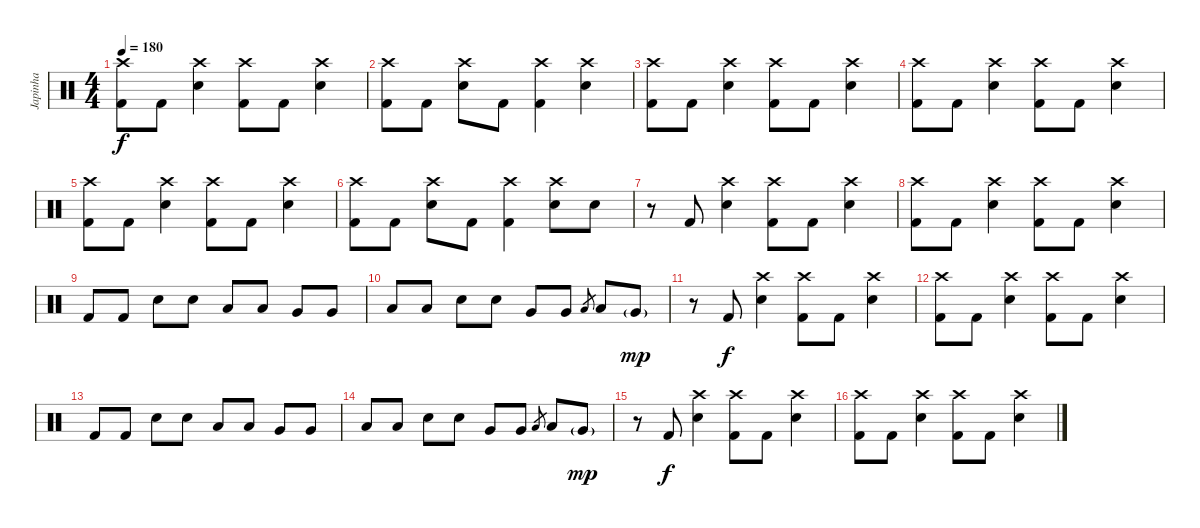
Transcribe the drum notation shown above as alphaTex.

\track ("Japinha" "Japinha") {instrument percussion}
\staff {score}
\articulation defaults
\ts (4 4)
\tempo 180
\clef neutral
\ks c
("Kick (hit) 2" "Crash high (hit)").8{dy f} "Kick (hit) 2".8 ("Snare (hit) 2" "Crash high (hit)").4 ("Kick (hit) 2" "Crash high (hit)").8 "Kick (hit) 2".8 ("Snare (hit) 2" "Crash high (hit)").4 |
("Kick (hit) 2" "Crash high (hit)").8 "Kick (hit) 2".8 ("Snare (hit) 2" "Crash high (hit)").8 "Kick (hit) 2".8 ("Kick (hit) 2" "Crash high (hit)").4 ("Snare (hit) 2" "Crash high (hit)").4 |
("Kick (hit) 2" "Crash high (hit)").8 "Kick (hit) 2".8 ("Snare (hit) 2" "Crash high (hit)").4 ("Kick (hit) 2" "Crash high (hit)").8 "Kick (hit) 2".8 ("Snare (hit) 2" "Crash high (hit)").4 |
("Kick (hit) 2" "Crash high (hit)").8 "Kick (hit) 2".8 ("Snare (hit) 2" "Crash high (hit)").4 ("Kick (hit) 2" "Crash high (hit)").8 "Kick (hit) 2".8 ("Snare (hit) 2" "Crash high (hit)").4 |
("Kick (hit) 2" "Crash high (hit)").8 "Kick (hit) 2".8 ("Snare (hit) 2" "Crash high (hit)").4 ("Kick (hit) 2" "Crash high (hit)").8 "Kick (hit) 2".8 ("Snare (hit) 2" "Crash high (hit)").4 |
("Kick (hit) 2" "Crash high (hit)").8 "Kick (hit) 2".8 ("Snare (hit) 2" "Crash high (hit)").8 "Kick (hit) 2".8 ("Kick (hit) 2" "Crash high (hit)").4 ("Snare (hit) 2" "Crash high (hit)").8 "Snare (hit) 2".8 |
r.8 "Kick (hit) 2".8 ("Snare (hit) 2" "Crash high (hit)").4 ("Kick (hit) 2" "Crash high (hit)").8 "Kick (hit) 2".8 ("Snare (hit) 2" "Crash high (hit)").4 |
("Kick (hit) 2" "Crash high (hit)").8 "Kick (hit) 2".8 ("Snare (hit) 2" "Crash high (hit)").4 ("Kick (hit) 2" "Crash high (hit)").8 "Kick (hit) 2".8 ("Snare (hit) 2" "Crash high (hit)").4 |
"Kick (hit) 2".8 "Kick (hit) 2".8 "Snare (hit) 2".8 "Snare (hit) 2".8 "Low Tom (hit)".8 "Low Tom (hit)".8 "Very Low Tom (hit)".8 "Very Low Tom (hit)".8 |
"Low Tom (hit)".8 "Low Tom (hit)".8 "Snare (hit) 2".8 "Snare (hit) 2".8 "Very Low Tom (hit)".8 "Very Low Tom (hit)".8 "Low Tom (hit)".8{gr} "Low Tom (hit)".8 "Very Low Tom (hit)"{g}.8{dy mp} |
r.8 "Kick (hit) 2".8{dy f} ("Snare (hit) 2" "Crash high (hit)").4 ("Kick (hit) 2" "Crash high (hit)").8 "Kick (hit) 2".8 ("Snare (hit) 2" "Crash high (hit)").4 |
("Kick (hit) 2" "Crash high (hit)").8 "Kick (hit) 2".8 ("Snare (hit) 2" "Crash high (hit)").4 ("Kick (hit) 2" "Crash high (hit)").8 "Kick (hit) 2".8 ("Snare (hit) 2" "Crash high (hit)").4 |
"Kick (hit) 2".8 "Kick (hit) 2".8 "Snare (hit) 2".8 "Snare (hit) 2".8 "Low Tom (hit)".8 "Low Tom (hit)".8 "Very Low Tom (hit)".8 "Very Low Tom (hit)".8 |
"Low Tom (hit)".8 "Low Tom (hit)".8 "Snare (hit) 2".8 "Snare (hit) 2".8 "Very Low Tom (hit)".8 "Very Low Tom (hit)".8 "Low Tom (hit)".8{gr} "Low Tom (hit)".8 "Very Low Tom (hit)"{g}.8{dy mp} |
r.8 "Kick (hit) 2".8{dy f} ("Snare (hit) 2" "Crash high (hit)").4 ("Kick (hit) 2" "Crash high (hit)").8 "Kick (hit) 2".8 ("Snare (hit) 2" "Crash high (hit)").4 |
("Kick (hit) 2" "Crash high (hit)").8 "Kick (hit) 2".8 ("Snare (hit) 2" "Crash high (hit)").4 ("Kick (hit) 2" "Crash high (hit)").8 "Kick (hit) 2".8 ("Snare (hit) 2" "Crash high (hit)").4
